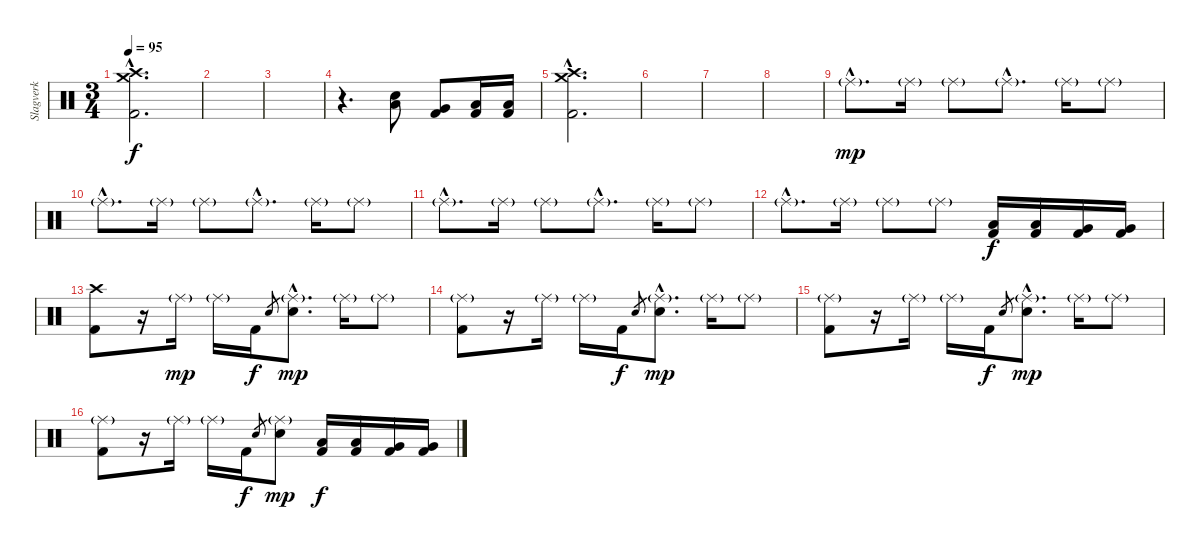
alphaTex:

\track ("Slagverk" "Slagverk") {instrument percussion}
\staff {score}
\articulation defaults
\ts (3 4)
\tempo 95
\clef neutral
\ks c
("Crash high (hit)"{hac} "Crash medium (hit)"{hac} "Kick (hit) 2"{hac}).2{d dy f} |
|
|
r.4{d} ("Electric Snare (hit)" "Low Tom (hit)").8 ("Very Low Tom (hit)" "Kick (hit) 2").8 ("Low Tom (hit)" "Kick (hit) 2").16 ("Low Tom (hit)" "Kick (hit) 2").16 |
("Crash high (hit)"{hac} "Crash medium (hit)"{hac} "Kick (hit) 2"{hac}).2{d} |
|
|
|
"Ride (middle)"{g hac}.8{d dy mp} "Ride (middle)"{g}.16 "Ride (middle)"{g}.8 "Ride (middle)"{g hac}.8{d} "Ride (middle)"{g}.16 "Ride (middle)"{g}.8 |
"Ride (middle)"{g hac}.8{d} "Ride (middle)"{g}.16 "Ride (middle)"{g}.8 "Ride (middle)"{g hac}.8{d} "Ride (middle)"{g}.16 "Ride (middle)"{g}.8 |
"Ride (middle)"{g hac}.8{d} "Ride (middle)"{g}.16 "Ride (middle)"{g}.8 "Ride (middle)"{g hac}.8{d} "Ride (middle)"{g}.16 "Ride (middle)"{g}.8 |
"Ride (middle)"{g hac}.8{d} "Ride (middle)"{g}.16 "Ride (middle)"{g}.8 "Ride (middle)"{g}.8 ("Low Tom (hit)" "Kick (hit) 2").16{dy f} ("Low Tom (hit)" "Kick (hit) 2").16 ("Very Low Tom (hit)" "Kick (hit) 2").16 ("Very Low Tom (hit)" "Kick (hit) 2").16 |
("Crash high (hit)" "Kick (hit) 2").8 r.16 "Ride (middle)"{g}.16{dy mp} "Ride (middle)"{g}.16 "Kick (hit) 2".16{dy f} "Electric Snare (hit)".8{gr} ("Ride (middle)"{g hac} "Electric Snare (hit)"{hac}).8{d dy mp} "Ride (middle)"{g}.16 "Ride (middle)"{g}.8 |
("Ride (middle)"{g} "Kick (hit) 2").8 r.16 "Ride (middle)"{g}.16 "Ride (middle)"{g}.16 "Kick (hit) 2".16{dy f} "Electric Snare (hit)".8{gr} ("Ride (middle)"{g hac} "Electric Snare (hit)"{hac}).8{d dy mp} "Ride (middle)"{g}.16 "Ride (middle)"{g}.8 |
("Ride (middle)"{g} "Kick (hit) 2").8 r.16 "Ride (middle)"{g}.16 "Ride (middle)"{g}.16 "Kick (hit) 2".16{dy f} "Electric Snare (hit)".8{gr} ("Ride (middle)"{g hac} "Electric Snare (hit)"{hac}).8{d dy mp} "Ride (middle)"{g}.16 "Ride (middle)"{g}.8 |
("Ride (middle)"{g} "Kick (hit) 2").8 r.16 "Ride (middle)"{g}.16 "Ride (middle)"{g}.16 "Kick (hit) 2".16{dy f} "Electric Snare (hit)".8{gr} ("Ride (middle)"{g} "Electric Snare (hit)").8{dy mp} ("Low Tom (hit)" "Kick (hit) 2").16{dy f} ("Low Tom (hit)" "Kick (hit) 2").16 ("Very Low Tom (hit)" "Kick (hit) 2").16 ("Very Low Tom (hit)" "Kick (hit) 2").16
